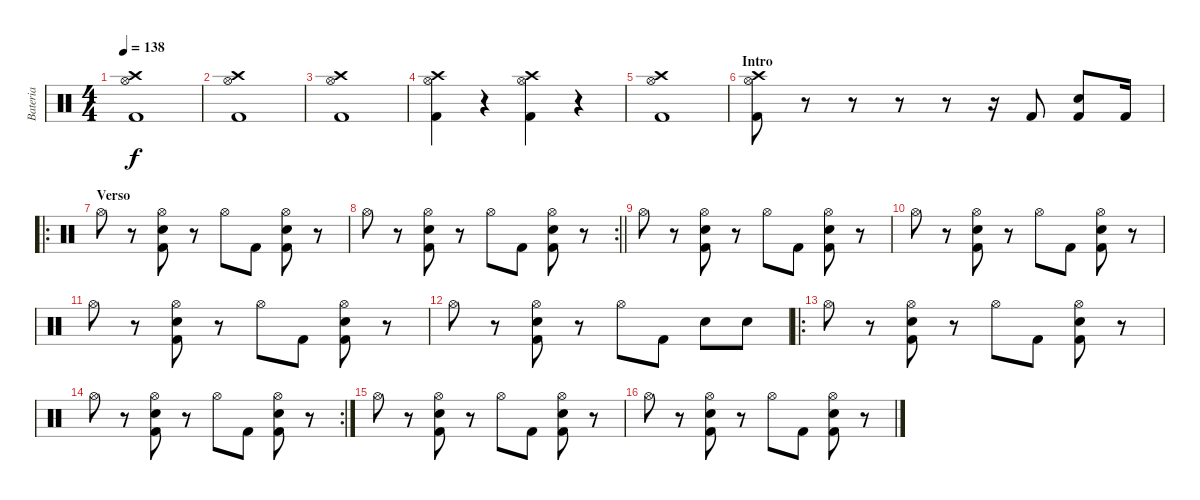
\track ("Bateria" "Bateria") {instrument percussion}
\staff {score}
\articulation defaults
\ts (4 4)
\tempo 138
\clef neutral
\ks c
("Crash high (hit)" "Hi-Hat (open)" "Kick (hit) 2").1{dy f} |
("Crash high (hit)" "Hi-Hat (open)" "Kick (hit) 2").1 |
("Crash high (hit)" "Hi-Hat (open)" "Kick (hit) 2").1 |
("Crash high (hit)" "Hi-Hat (open)" "Kick (hit) 2").4 r.4 ("Crash high (hit)" "Hi-Hat (open)" "Kick (hit) 2").4 r.4 |
("Crash high (hit)" "Hi-Hat (open)" "Kick (hit) 2").1 |
\section ("" "Intro")
("Crash high (hit)" "Hi-Hat (open)" "Kick (hit) 2").8 r.8 r.8 r.8 r.8 r.16 "Kick (hit) 2".8 ("Electric Snare (hit)" "Kick (hit) 2").8 "Kick (hit) 2".16 |
\ro
\section ("" "Verso")
"Hi-Hat (open)".8 r.8 ("Hi-Hat (open)" "Electric Snare (hit)" "Kick (hit) 2").8 r.8 "Hi-Hat (open)".8 "Kick (hit) 2".8 ("Hi-Hat (open)" "Electric Snare (hit)" "Kick (hit) 2").8 r.8 |
\rc 2
\barLineRight lightlight "Hi-Hat (open)".8
r.8 ("Hi-Hat (open)" "Electric Snare (hit)" "Kick (hit) 2").8 r.8 "Hi-Hat (open)".8 "Kick (hit) 2".8 ("Hi-Hat (open)" "Electric Snare (hit)" "Kick (hit) 2").8 r.8 |
"Hi-Hat (open)".8 r.8 ("Hi-Hat (open)" "Electric Snare (hit)" "Kick (hit) 2").8 r.8 "Hi-Hat (open)".8 "Kick (hit) 2".8 ("Hi-Hat (open)" "Electric Snare (hit)" "Kick (hit) 2").8 r.8 |
"Hi-Hat (open)".8 r.8 ("Hi-Hat (open)" "Electric Snare (hit)" "Kick (hit) 2").8 r.8 "Hi-Hat (open)".8 "Kick (hit) 2".8 ("Hi-Hat (open)" "Electric Snare (hit)" "Kick (hit) 2").8 r.8 |
"Hi-Hat (open)".8 r.8 ("Hi-Hat (open)" "Electric Snare (hit)" "Kick (hit) 2").8 r.8 "Hi-Hat (open)".8 "Kick (hit) 2".8 ("Hi-Hat (open)" "Electric Snare (hit)" "Kick (hit) 2").8 r.8 |
"Hi-Hat (open)".8 r.8 ("Hi-Hat (open)" "Electric Snare (hit)" "Kick (hit) 2").8 r.8 "Hi-Hat (open)".8 "Kick (hit) 2".8 "Electric Snare (hit)".8 "Electric Snare (hit)".8 |
\ro "Hi-Hat (open)".8
r.8 ("Hi-Hat (open)" "Electric Snare (hit)" "Kick (hit) 2").8 r.8 "Hi-Hat (open)".8 "Kick (hit) 2".8 ("Hi-Hat (open)" "Electric Snare (hit)" "Kick (hit) 2").8 r.8 |
\rc 2 "Hi-Hat (open)".8
r.8 ("Hi-Hat (open)" "Electric Snare (hit)" "Kick (hit) 2").8 r.8 "Hi-Hat (open)".8 "Kick (hit) 2".8 ("Hi-Hat (open)" "Electric Snare (hit)" "Kick (hit) 2").8 r.8 |
"Hi-Hat (open)".8 r.8 ("Hi-Hat (open)" "Electric Snare (hit)" "Kick (hit) 2").8 r.8 "Hi-Hat (open)".8 "Kick (hit) 2".8 ("Hi-Hat (open)" "Electric Snare (hit)" "Kick (hit) 2").8 r.8 |
"Hi-Hat (open)".8 r.8 ("Hi-Hat (open)" "Electric Snare (hit)" "Kick (hit) 2").8 r.8 "Hi-Hat (open)".8 "Kick (hit) 2".8 ("Hi-Hat (open)" "Electric Snare (hit)" "Kick (hit) 2").8 r.8
